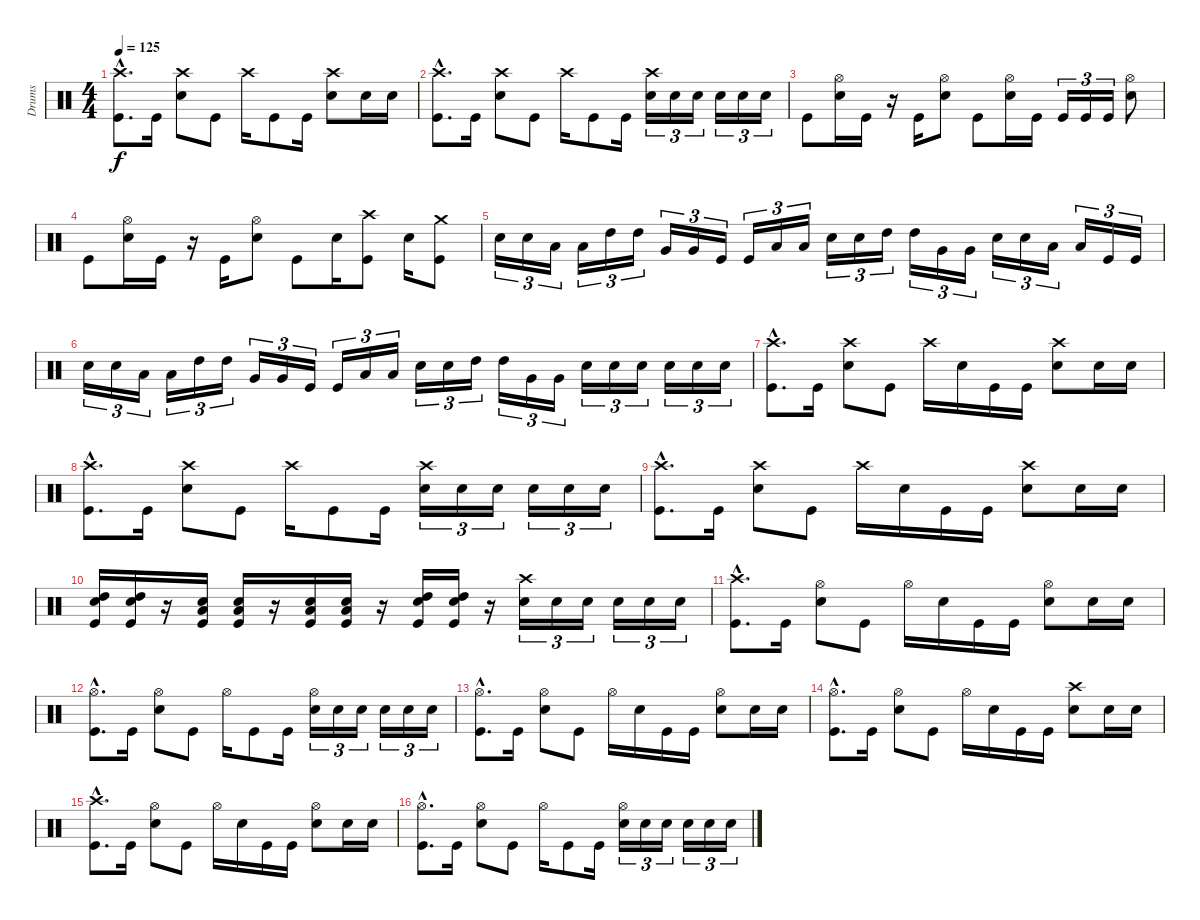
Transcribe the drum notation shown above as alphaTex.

\track ("Drums" "Drums") {instrument percussion}
\staff {score}
\articulation defaults
\ts (4 4)
\tempo 125
\clef neutral
\ks c
("Kick (hit)"{hac} "Crash high (hit)"{hac}).8{d dy f} "Kick (hit)".16 ("Snare (hit) 2" "Crash high (hit)").8 "Kick (hit)".8 "Crash high (hit)".16 "Kick (hit)".8 "Kick (hit)".16 ("Snare (hit) 2" "Crash high (hit)").8 "Snare (hit) 2".16 "Snare (hit) 2".16 |
("Kick (hit)"{hac} "Crash high (hit)"{hac}).8{d} "Kick (hit)".16 ("Snare (hit) 2" "Crash high (hit)").8 "Kick (hit)".8 "Crash high (hit)".16 "Kick (hit)".8 "Kick (hit)".16 ("Snare (hit) 2" "Crash high (hit)").16{tu (3 2)} "Snare (hit) 2".16{tu (3 2)} "Snare (hit) 2".16{tu (3 2)} "Snare (hit) 2".16{tu (3 2)} "Snare (hit) 2".16{tu (3 2)} "Snare (hit) 2".16{tu (3 2)} |
"Kick (hit)".8 ("Snare (hit) 2" "Hi-Hat (open)").16 "Kick (hit)".16 r.16 "Kick (hit)".16 ("Snare (hit) 2" "Hi-Hat (open)").8 "Kick (hit)".8 ("Snare (hit) 2" "Hi-Hat (open)").16 "Kick (hit)".16 "Kick (hit)".16{tu (3 2)} "Kick (hit)".16{tu (3 2)} "Kick (hit)".16{tu (3 2)} ("Snare (hit) 2" "Hi-Hat (open)").8 |
"Kick (hit)".8 ("Snare (hit) 2" "Hi-Hat (open)").16 "Kick (hit)".16 r.16 "Kick (hit)".16 ("Snare (hit) 2" "Hi-Hat (open)").8 "Kick (hit)".8 "Snare (hit) 2".16 ("Kick (hit)" "Crash high (hit)").8 "Snare (hit) 2".16 ("Kick (hit)" "Crash medium (hit)").8 |
"Snare (hit) 2".16{tu (3 2)} "Snare (hit) 2".16{tu (3 2)} "Low Tom (hit)".16{tu (3 2)} "Low Tom (hit)".16{tu (3 2)} "High Tom (hit)".16{tu (3 2)} "High Tom (hit)".16{tu (3 2)} "Very Low Tom (hit)".16{tu (3 2)} "Very Low Tom (hit)".16{tu (3 2)} "Kick (hit)".16{tu (3 2)} "Kick (hit)".16{tu (3 2)} "Low Tom (hit)".16{tu (3 2)} "Low Tom (hit)".16{tu (3 2)} "Snare (hit) 2".16{tu (3 2)} "Snare (hit) 2".16{tu (3 2)} "High Tom (hit)".16{tu (3 2)} "High Tom (hit)".16{tu (3 2)} "Very Low Tom (hit)".16{tu (3 2)} "Very Low Tom (hit)".16{tu (3 2)} "Snare (hit) 2".16{tu (3 2)} "Snare (hit) 2".16{tu (3 2)} "Low Tom (hit)".16{tu (3 2)} "Low Tom (hit)".16{tu (3 2)} "Kick (hit)".16{tu (3 2)} "Kick (hit)".16{tu (3 2)} |
"Snare (hit) 2".16{tu (3 2)} "Snare (hit) 2".16{tu (3 2)} "Low Tom (hit)".16{tu (3 2)} "Low Tom (hit)".16{tu (3 2)} "High Tom (hit)".16{tu (3 2)} "High Tom (hit)".16{tu (3 2)} "Very Low Tom (hit)".16{tu (3 2)} "Very Low Tom (hit)".16{tu (3 2)} "Kick (hit)".16{tu (3 2)} "Kick (hit)".16{tu (3 2)} "Low Tom (hit)".16{tu (3 2)} "Low Tom (hit)".16{tu (3 2)} "Snare (hit) 2".16{tu (3 2)} "Snare (hit) 2".16{tu (3 2)} "High Tom (hit)".16{tu (3 2)} "High Tom (hit)".16{tu (3 2)} "Very Low Tom (hit)".16{tu (3 2)} "Very Low Tom (hit)".16{tu (3 2)} "Snare (hit) 2".16{tu (3 2)} "Snare (hit) 2".16{tu (3 2)} "Snare (hit) 2".16{tu (3 2)} "Snare (hit) 2".16{tu (3 2)} "Snare (hit) 2".16{tu (3 2)} "Snare (hit) 2".16{tu (3 2)} |
("Kick (hit)"{hac} "Crash high (hit)"{hac}).8{d} "Kick (hit)".16 ("Snare (hit) 2" "Crash high (hit)").8 "Kick (hit)".8 "Crash high (hit)".16 "Snare (hit) 2".16 "Kick (hit)".16 "Kick (hit)".16 ("Snare (hit) 2" "Crash high (hit)").8 "Snare (hit) 2".16 "Snare (hit) 2".16 |
("Kick (hit)"{hac} "Crash high (hit)"{hac}).8{d} "Kick (hit)".16 ("Snare (hit) 2" "Crash high (hit)").8 "Kick (hit)".8 "Crash high (hit)".16 "Kick (hit)".8 "Kick (hit)".16 ("Snare (hit) 2" "Crash high (hit)").16{tu (3 2)} "Snare (hit) 2".16{tu (3 2)} "Snare (hit) 2".16{tu (3 2)} "Snare (hit) 2".16{tu (3 2)} "Snare (hit) 2".16{tu (3 2)} "Snare (hit) 2".16{tu (3 2)} |
("Kick (hit)"{hac} "Crash high (hit)"{hac}).8{d} "Kick (hit)".16 ("Snare (hit) 2" "Crash high (hit)").8 "Kick (hit)".8 "Crash high (hit)".16 "Snare (hit) 2".16 "Kick (hit)".16 "Kick (hit)".16 ("Snare (hit) 2" "Crash high (hit)").8 "Snare (hit) 2".16 "Snare (hit) 2".16 |
("Kick (hit)" "High Tom (hit)" "Snare (hit) 2").16 ("Kick (hit)" "High Tom (hit)" "Snare (hit) 2").16 r.16 ("Kick (hit)" "Low Tom (hit)" "Snare (hit) 2").16 ("Kick (hit)" "Low Tom (hit)" "Snare (hit) 2").16 r.16 ("Kick (hit)" "Low Tom (hit)" "Snare (hit) 2").16 ("Kick (hit)" "Low Tom (hit)" "Snare (hit) 2").16 r.16 ("Kick (hit)" "High Tom (hit)" "Snare (hit) 2").16 ("Kick (hit)" "High Tom (hit)" "Snare (hit) 2").16 r.16 ("Snare (hit) 2" "Crash high (hit)").16{tu (3 2)} "Snare (hit) 2".16{tu (3 2)} "Snare (hit) 2".16{tu (3 2)} "Snare (hit) 2".16{tu (3 2)} "Snare (hit) 2".16{tu (3 2)} "Snare (hit) 2".16{tu (3 2)} |
("Kick (hit)"{hac} "Crash high (hit)"{hac}).8{d} "Kick (hit)".16 ("Snare (hit) 2" "Hi-Hat (open)").8 "Kick (hit)".8 "Hi-Hat (open)".16 "Snare (hit) 2".16 "Kick (hit)".16 "Kick (hit)".16 ("Snare (hit) 2" "Hi-Hat (open)").8 "Snare (hit) 2".16 "Snare (hit) 2".16 |
("Kick (hit)"{hac} "Hi-Hat (open)"{hac}).8{d} "Kick (hit)".16 ("Snare (hit) 2" "Hi-Hat (open)").8 "Kick (hit)".8 "Hi-Hat (open)".16 "Kick (hit)".8 "Kick (hit)".16 ("Snare (hit) 2" "Hi-Hat (open)").16{tu (3 2)} "Snare (hit) 2".16{tu (3 2)} "Snare (hit) 2".16{tu (3 2)} "Snare (hit) 2".16{tu (3 2)} "Snare (hit) 2".16{tu (3 2)} "Snare (hit) 2".16{tu (3 2)} |
("Kick (hit)"{hac} "Hi-Hat (open)"{hac}).8{d} "Kick (hit)".16 ("Snare (hit) 2" "Hi-Hat (open)").8 "Kick (hit)".8 "Hi-Hat (open)".16 "Snare (hit) 2".16 "Kick (hit)".16 "Kick (hit)".16 ("Snare (hit) 2" "Hi-Hat (open)").8 "Snare (hit) 2".16 "Snare (hit) 2".16 |
("Kick (hit)"{hac} "Hi-Hat (open)"{hac}).8{d} "Kick (hit)".16 ("Snare (hit) 2" "Hi-Hat (open)").8 "Kick (hit)".8 "Hi-Hat (open)".16 "Snare (hit) 2".16 "Kick (hit)".16 "Kick (hit)".16 ("Snare (hit) 2" "Crash high (hit)").8 "Snare (hit) 2".16 "Snare (hit) 2".16 |
("Kick (hit)"{hac} "Crash high (hit)"{hac}).8{d} "Kick (hit)".16 ("Snare (hit) 2" "Hi-Hat (open)").8 "Kick (hit)".8 "Hi-Hat (open)".16 "Snare (hit) 2".16 "Kick (hit)".16 "Kick (hit)".16 ("Snare (hit) 2" "Hi-Hat (open)").8 "Snare (hit) 2".16 "Snare (hit) 2".16 |
("Kick (hit)"{hac} "Hi-Hat (open)"{hac}).8{d} "Kick (hit)".16 ("Snare (hit) 2" "Hi-Hat (open)").8 "Kick (hit)".8 "Hi-Hat (open)".16 "Kick (hit)".8 "Kick (hit)".16 ("Snare (hit) 2" "Hi-Hat (open)").16{tu (3 2)} "Snare (hit) 2".16{tu (3 2)} "Snare (hit) 2".16{tu (3 2)} "Snare (hit) 2".16{tu (3 2)} "Snare (hit) 2".16{tu (3 2)} "Snare (hit) 2".16{tu (3 2)}
